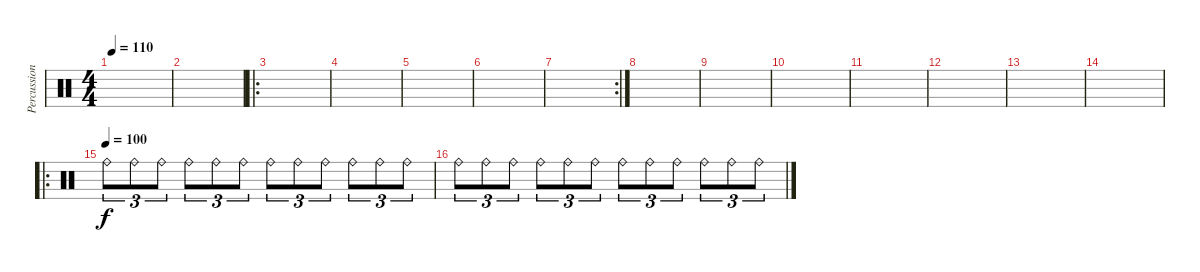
\track ("Percussion" "Percussion") {instrument percussion}
\staff {score}
\articulation defaults
\ts (4 4)
\tempo 110
\clef neutral
\ks c
|
|
\ro
|
|
|
|
\rc 2
|
|
|
|
|
|
|
|
\ro
\tempo (100)
"Ride (bell)".8{tu (3 2)} "Ride (bell)".8{tu (3 2)} "Ride (bell)".8{tu (3 2)} "Ride (bell)".8{tu (3 2)} "Ride (bell)".8{tu (3 2)} "Ride (bell)".8{tu (3 2)} "Ride (bell)".8{tu (3 2)} "Ride (bell)".8{tu (3 2)} "Ride (bell)".8{tu (3 2)} "Ride (bell)".8{tu (3 2)} "Ride (bell)".8{tu (3 2)} "Ride (bell)".8{tu (3 2)} |
"Ride (bell)".8{tu (3 2)} "Ride (bell)".8{tu (3 2)} "Ride (bell)".8{tu (3 2)} "Ride (bell)".8{tu (3 2)} "Ride (bell)".8{tu (3 2)} "Ride (bell)".8{tu (3 2)} "Ride (bell)".8{tu (3 2)} "Ride (bell)".8{tu (3 2)} "Ride (bell)".8{tu (3 2)} "Ride (bell)".8{tu (3 2)} "Ride (bell)".8{tu (3 2)} "Ride (bell)".8{tu (3 2)}
